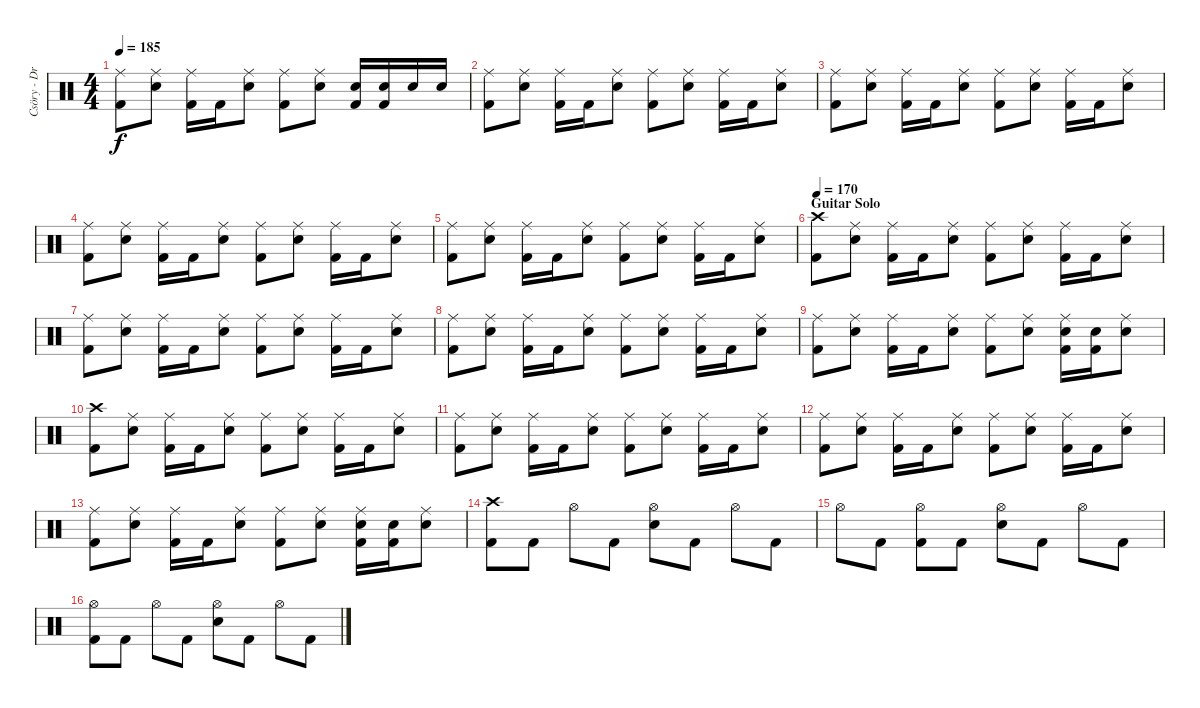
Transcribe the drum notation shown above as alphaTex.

\track ("Csöry - DrumZ" "Csöry - Dr") {instrument percussion}
\staff {score}
\articulation defaults
\ts (4 4)
\tempo 185
\clef neutral
\ks c
("Ride (middle)" "Kick (hit) 2").8{dy f} ("Ride (middle)" "Snare (hit) 2").8 ("Ride (middle)" "Kick (hit) 2").16 "Kick (hit) 2".16 ("Ride (middle)" "Snare (hit) 2").8 ("Ride (middle)" "Kick (hit) 2").8 ("Ride (middle)" "Snare (hit) 2").8 ("Snare (hit) 2" "Kick (hit) 2").16 ("Snare (hit) 2" "Kick (hit) 2").16 "Snare (hit) 2".16 "Snare (hit) 2".16 |
("Ride (middle)" "Kick (hit) 2").8 ("Ride (middle)" "Snare (hit) 2").8 ("Ride (middle)" "Kick (hit) 2").16 "Kick (hit) 2".16 ("Ride (middle)" "Snare (hit) 2").8 ("Ride (middle)" "Kick (hit) 2").8 ("Ride (middle)" "Snare (hit) 2").8 ("Ride (middle)" "Kick (hit) 2").16 "Kick (hit) 2".16 ("Ride (middle)" "Snare (hit) 2").8 |
("Ride (middle)" "Kick (hit) 2").8 ("Ride (middle)" "Snare (hit) 2").8 ("Ride (middle)" "Kick (hit) 2").16 "Kick (hit) 2".16 ("Ride (middle)" "Snare (hit) 2").8 ("Ride (middle)" "Kick (hit) 2").8 ("Ride (middle)" "Snare (hit) 2").8 ("Ride (middle)" "Kick (hit) 2").16 "Kick (hit) 2".16 ("Ride (middle)" "Snare (hit) 2").8 |
("Ride (middle)" "Kick (hit) 2").8 ("Ride (middle)" "Snare (hit) 2").8 ("Ride (middle)" "Kick (hit) 2").16 "Kick (hit) 2".16 ("Ride (middle)" "Snare (hit) 2").8 ("Ride (middle)" "Kick (hit) 2").8 ("Ride (middle)" "Snare (hit) 2").8 ("Ride (middle)" "Kick (hit) 2").16 "Kick (hit) 2".16 ("Ride (middle)" "Snare (hit) 2").8 |
("Ride (middle)" "Kick (hit) 2").8 ("Ride (middle)" "Snare (hit) 2").8 ("Ride (middle)" "Kick (hit) 2").16 "Kick (hit) 2".16 ("Ride (middle)" "Snare (hit) 2").8 ("Ride (middle)" "Kick (hit) 2").8 ("Ride (middle)" "Snare (hit) 2").8 ("Ride (middle)" "Kick (hit) 2").16 "Kick (hit) 2".16 ("Ride (middle)" "Snare (hit) 2").8 |
\section ("" "Guitar Solo")
\tempo 170
("Crash high (hit)" "Kick (hit) 2").8 ("Ride (middle)" "Snare (hit) 2").8 ("Ride (middle)" "Kick (hit) 2").16 "Kick (hit) 2".16 ("Ride (middle)" "Snare (hit) 2").8 ("Ride (middle)" "Kick (hit) 2").8 ("Ride (middle)" "Snare (hit) 2").8 ("Ride (middle)" "Kick (hit) 2").16 "Kick (hit) 2".16 ("Ride (middle)" "Snare (hit) 2").8 |
("Ride (middle)" "Kick (hit) 2").8 ("Ride (middle)" "Snare (hit) 2").8 ("Ride (middle)" "Kick (hit) 2").16 "Kick (hit) 2".16 ("Ride (middle)" "Snare (hit) 2").8 ("Ride (middle)" "Kick (hit) 2").8 ("Ride (middle)" "Snare (hit) 2").8 ("Ride (middle)" "Kick (hit) 2").16 "Kick (hit) 2".16 ("Ride (middle)" "Snare (hit) 2").8 |
("Ride (middle)" "Kick (hit) 2").8 ("Ride (middle)" "Snare (hit) 2").8 ("Ride (middle)" "Kick (hit) 2").16 "Kick (hit) 2".16 ("Ride (middle)" "Snare (hit) 2").8 ("Ride (middle)" "Kick (hit) 2").8 ("Ride (middle)" "Snare (hit) 2").8 ("Ride (middle)" "Kick (hit) 2").16 "Kick (hit) 2".16 ("Ride (middle)" "Snare (hit) 2").8 |
("Ride (middle)" "Kick (hit) 2").8 ("Ride (middle)" "Snare (hit) 2").8 ("Ride (middle)" "Kick (hit) 2").16 "Kick (hit) 2".16 ("Ride (middle)" "Snare (hit) 2").8 ("Ride (middle)" "Kick (hit) 2").8 ("Ride (middle)" "Snare (hit) 2").8 ("Ride (middle)" "Snare (hit) 2" "Kick (hit) 2").16 ("Snare (hit) 2" "Kick (hit) 2").16 ("Ride (middle)" "Snare (hit) 2").8 |
("Crash high (hit)" "Kick (hit) 2").8 ("Ride (middle)" "Snare (hit) 2").8 ("Ride (middle)" "Kick (hit) 2").16 "Kick (hit) 2".16 ("Ride (middle)" "Snare (hit) 2").8 ("Ride (middle)" "Kick (hit) 2").8 ("Ride (middle)" "Snare (hit) 2").8 ("Ride (middle)" "Kick (hit) 2").16 "Kick (hit) 2".16 ("Ride (middle)" "Snare (hit) 2").8 |
("Ride (middle)" "Kick (hit) 2").8 ("Ride (middle)" "Snare (hit) 2").8 ("Ride (middle)" "Kick (hit) 2").16 "Kick (hit) 2".16 ("Ride (middle)" "Snare (hit) 2").8 ("Ride (middle)" "Kick (hit) 2").8 ("Ride (middle)" "Snare (hit) 2").8 ("Ride (middle)" "Kick (hit) 2").16 "Kick (hit) 2".16 ("Ride (middle)" "Snare (hit) 2").8 |
("Ride (middle)" "Kick (hit) 2").8 ("Ride (middle)" "Snare (hit) 2").8 ("Ride (middle)" "Kick (hit) 2").16 "Kick (hit) 2".16 ("Ride (middle)" "Snare (hit) 2").8 ("Ride (middle)" "Kick (hit) 2").8 ("Ride (middle)" "Snare (hit) 2").8 ("Ride (middle)" "Kick (hit) 2").16 "Kick (hit) 2".16 ("Ride (middle)" "Snare (hit) 2").8 |
("Ride (middle)" "Kick (hit) 2").8 ("Ride (middle)" "Snare (hit) 2").8 ("Ride (middle)" "Kick (hit) 2").16 "Kick (hit) 2".16 ("Ride (middle)" "Snare (hit) 2").8 ("Ride (middle)" "Kick (hit) 2").8 ("Ride (middle)" "Snare (hit) 2").8 ("Ride (middle)" "Snare (hit) 2" "Kick (hit) 2").16 ("Snare (hit) 2" "Kick (hit) 2").16 ("Ride (middle)" "Snare (hit) 2").8 |
("Crash high (hit)" "Kick (hit) 2").8 "Kick (hit) 2".8 "Hi-Hat (open)".8 "Kick (hit) 2".8 ("Hi-Hat (open)" "Snare (hit) 2").8 "Kick (hit) 2".8 "Hi-Hat (open)".8 "Kick (hit) 2".8 |
"Hi-Hat (open)".8 "Kick (hit) 2".8 ("Hi-Hat (open)" "Kick (hit) 2").8 "Kick (hit) 2".8 ("Hi-Hat (open)" "Snare (hit) 2").8 "Kick (hit) 2".8 "Hi-Hat (open)".8 "Kick (hit) 2".8 |
("Hi-Hat (open)" "Kick (hit) 2").8 "Kick (hit) 2".8 "Hi-Hat (open)".8 "Kick (hit) 2".8 ("Hi-Hat (open)" "Snare (hit) 2").8 "Kick (hit) 2".8 "Hi-Hat (open)".8 "Kick (hit) 2".8
